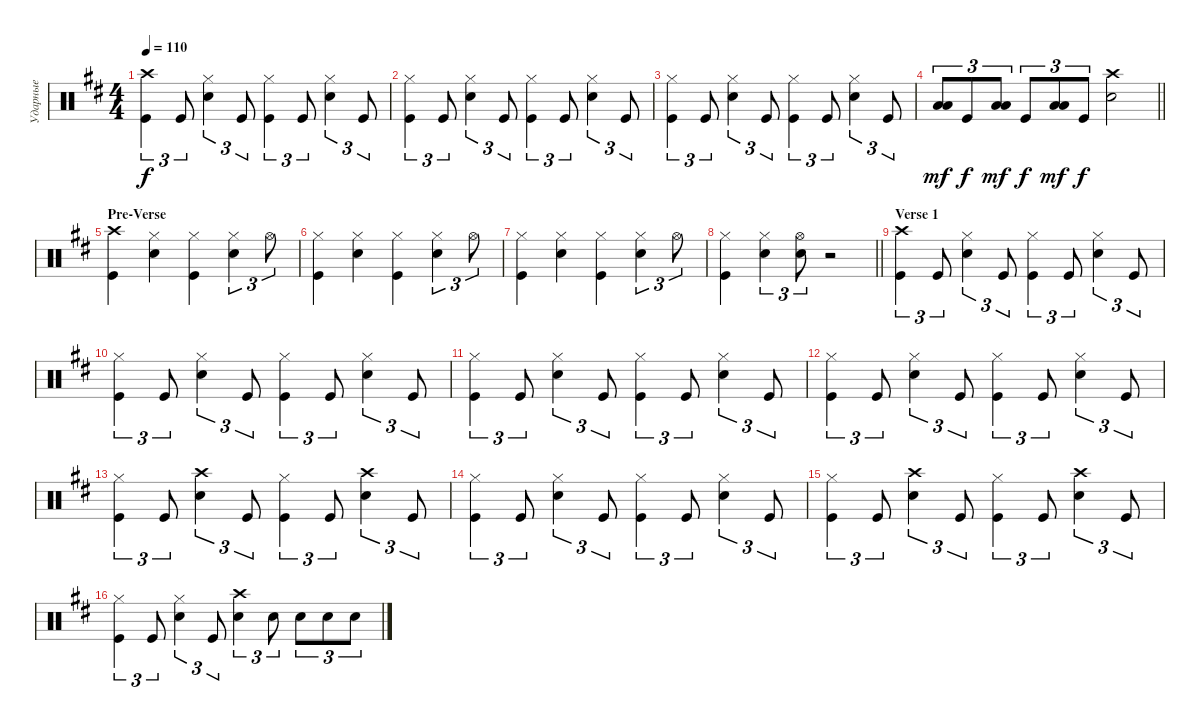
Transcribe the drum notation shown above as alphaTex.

\track ("Ударные" "Ударные") {instrument percussion}
\staff {score}
\articulation defaults
\ts (4 4)
\tempo 110
\clef neutral
\ks bminor
("Kick (hit)" "Crash high (hit)").4{tu (3 2) dy f} "Kick (hit)".8{tu (3 2)} ("Snare (hit) 2" "Hi-Hat (closed)").4{tu (3 2)} "Kick (hit)".8{tu (3 2)} ("Kick (hit)" "Hi-Hat (closed)").4{tu (3 2)} "Kick (hit)".8{tu (3 2)} ("Snare (hit) 2" "Hi-Hat (closed)").4{tu (3 2)} "Kick (hit)".8{tu (3 2)} |
("Kick (hit)" "Hi-Hat (closed)").4{tu (3 2)} "Kick (hit)".8{tu (3 2)} ("Snare (hit) 2" "Hi-Hat (closed)").4{tu (3 2)} "Kick (hit)".8{tu (3 2)} ("Kick (hit)" "Hi-Hat (closed)").4{tu (3 2)} "Kick (hit)".8{tu (3 2)} ("Snare (hit) 2" "Hi-Hat (closed)").4{tu (3 2)} "Kick (hit)".8{tu (3 2)} |
("Kick (hit)" "Hi-Hat (closed)").4{tu (3 2)} "Kick (hit)".8{tu (3 2)} ("Snare (hit) 2" "Hi-Hat (closed)").4{tu (3 2)} "Kick (hit)".8{tu (3 2)} ("Kick (hit)" "Hi-Hat (closed)").4{tu (3 2)} "Kick (hit)".8{tu (3 2)} ("Snare (hit) 2" "Hi-Hat (closed)").4{tu (3 2)} "Kick (hit)".8{tu (3 2)} |
\barLineRight lightlight
("Low Tom (hit)" "Low Tom (hit)").8{tu (3 2) bd 120 dy mf} "Kick (hit)".8{tu (3 2) dy f} ("Low Tom (hit)" "Low Tom (hit)").8{tu (3 2) bd 120 dy mf} "Kick (hit)".8{tu (3 2) dy f} ("Low Tom (hit)" "Low Tom (hit)").8{tu (3 2) bd 120 dy mf} "Kick (hit)".8{tu (3 2) dy f} ("Snare (hit) 2" "Crash high (hit)").2 |
\section ("" "Pre-Verse")
("Kick (hit)" "Crash high (hit)").4 ("Hi-Hat (closed)" "Snare (hit) 2").4 ("Hi-Hat (closed)" "Kick (hit)").4 ("Snare (hit) 2" "Hi-Hat (closed)").4{tu (3 2)} "Hi-Hat (open)".8{tu (3 2)} |
("Kick (hit)" "Hi-Hat (closed)").4 ("Hi-Hat (closed)" "Snare (hit) 2").4 ("Hi-Hat (closed)" "Kick (hit)").4 ("Snare (hit) 2" "Hi-Hat (closed)").4{tu (3 2)} "Hi-Hat (open)".8{tu (3 2)} |
("Kick (hit)" "Hi-Hat (closed)").4 ("Hi-Hat (closed)" "Snare (hit) 2").4 ("Hi-Hat (closed)" "Kick (hit)").4 ("Snare (hit) 2" "Hi-Hat (closed)").4{tu (3 2)} "Hi-Hat (open)".8{tu (3 2)} |
\barLineRight lightlight
("Kick (hit)" "Hi-Hat (closed)").4 ("Hi-Hat (closed)" "Snare (hit) 2").4{tu (3 2)} ("Snare (hit) 2" "Hi-Hat (open)").8{tu (3 2)} r.2 |
\section ("" "Verse 1")
("Kick (hit)" "Crash high (hit)").4{tu (3 2)} "Kick (hit)".8{tu (3 2)} ("Snare (hit) 2" "Hi-Hat (closed)").4{tu (3 2)} "Kick (hit)".8{tu (3 2)} ("Kick (hit)" "Hi-Hat (closed)").4{tu (3 2)} "Kick (hit)".8{tu (3 2)} ("Snare (hit) 2" "Hi-Hat (closed)").4{tu (3 2)} "Kick (hit)".8{tu (3 2)} |
("Kick (hit)" "Hi-Hat (closed)").4{tu (3 2)} "Kick (hit)".8{tu (3 2)} ("Snare (hit) 2" "Hi-Hat (closed)").4{tu (3 2)} "Kick (hit)".8{tu (3 2)} ("Kick (hit)" "Hi-Hat (closed)").4{tu (3 2)} "Kick (hit)".8{tu (3 2)} ("Snare (hit) 2" "Hi-Hat (closed)").4{tu (3 2)} "Kick (hit)".8{tu (3 2)} |
("Kick (hit)" "Hi-Hat (closed)").4{tu (3 2)} "Kick (hit)".8{tu (3 2)} ("Snare (hit) 2" "Hi-Hat (closed)").4{tu (3 2)} "Kick (hit)".8{tu (3 2)} ("Kick (hit)" "Hi-Hat (closed)").4{tu (3 2)} "Kick (hit)".8{tu (3 2)} ("Snare (hit) 2" "Hi-Hat (closed)").4{tu (3 2)} "Kick (hit)".8{tu (3 2)} |
("Kick (hit)" "Hi-Hat (closed)").4{tu (3 2)} "Kick (hit)".8{tu (3 2)} ("Snare (hit) 2" "Hi-Hat (closed)").4{tu (3 2)} "Kick (hit)".8{tu (3 2)} ("Kick (hit)" "Hi-Hat (closed)").4{tu (3 2)} "Kick (hit)".8{tu (3 2)} ("Snare (hit) 2" "Hi-Hat (closed)").4{tu (3 2)} "Kick (hit)".8{tu (3 2)} |
("Kick (hit)" "Hi-Hat (closed)").4{tu (3 2)} "Kick (hit)".8{tu (3 2)} ("Snare (hit) 2" "Crash high (hit)").4{tu (3 2)} "Kick (hit)".8{tu (3 2)} ("Kick (hit)" "Hi-Hat (closed)").4{tu (3 2)} "Kick (hit)".8{tu (3 2)} ("Snare (hit) 2" "Crash high (hit)").4{tu (3 2)} "Kick (hit)".8{tu (3 2)} |
("Kick (hit)" "Hi-Hat (closed)").4{tu (3 2)} "Kick (hit)".8{tu (3 2)} ("Snare (hit) 2" "Hi-Hat (closed)").4{tu (3 2)} "Kick (hit)".8{tu (3 2)} ("Kick (hit)" "Hi-Hat (closed)").4{tu (3 2)} "Kick (hit)".8{tu (3 2)} ("Snare (hit) 2" "Hi-Hat (closed)").4{tu (3 2)} "Kick (hit)".8{tu (3 2)} |
("Kick (hit)" "Hi-Hat (closed)").4{tu (3 2)} "Kick (hit)".8{tu (3 2)} ("Snare (hit) 2" "Crash high (hit)").4{tu (3 2)} "Kick (hit)".8{tu (3 2)} ("Kick (hit)" "Hi-Hat (closed)").4{tu (3 2)} "Kick (hit)".8{tu (3 2)} ("Snare (hit) 2" "Crash high (hit)").4{tu (3 2)} "Kick (hit)".8{tu (3 2)} |
("Kick (hit)" "Hi-Hat (closed)").4{tu (3 2)} "Kick (hit)".8{tu (3 2)} ("Snare (hit) 2" "Hi-Hat (closed)").4{tu (3 2)} "Kick (hit)".8{tu (3 2)} ("Snare (hit) 2" "Crash high (hit)").4{tu (3 2)} "Snare (hit) 2".8{tu (3 2)} "Snare (hit) 2".8{tu (3 2)} "Snare (hit) 2".8{tu (3 2)} "Snare (hit) 2".8{tu (3 2)}
